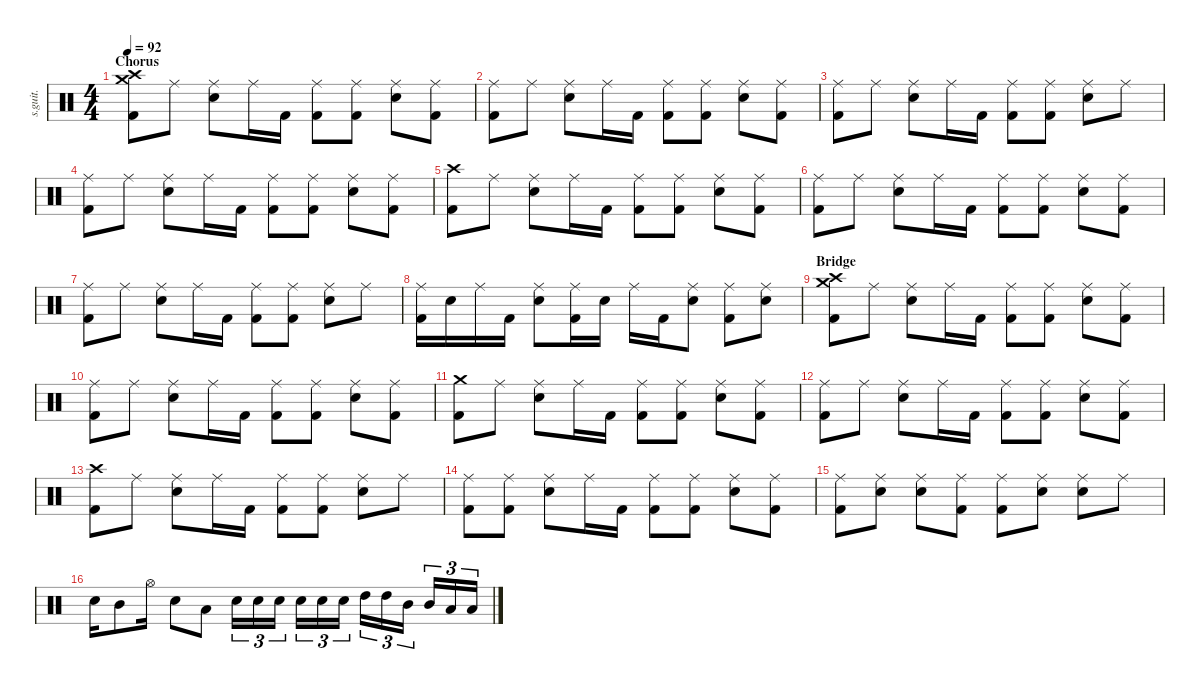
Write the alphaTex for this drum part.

\defaultSystemsLayout 4
\hideDynamics
\bracketExtendMode nobrackets
\track ("Phil Selway | DW Drum Kit | Drums" "s.guit.") {instrument percussion}
\staff {score}
\articulation defaults
\ts (4 4)
\section ("" "Chorus")
\tempo 92
\clef neutral
\ks c
("Crash high (hit)" "Crash medium (hit)" "Kick (hit) 2").8{dy fff} "Ride (middle)".8 ("Ride (middle)" "Snare (hit) 2").8 "Ride (middle)".16 "Kick (hit) 2".16 ("Ride (middle)" "Kick (hit) 2").8 ("Ride (middle)" "Kick (hit) 2").8 ("Ride (middle)" "Snare (hit) 2").8 ("Ride (middle)" "Kick (hit) 2").8 |
("Ride (middle)" "Kick (hit) 2").8 "Ride (middle)".8 ("Ride (middle)" "Snare (hit) 2").8 "Ride (middle)".16 "Kick (hit) 2".16 ("Ride (middle)" "Kick (hit) 2").8 ("Ride (middle)" "Kick (hit) 2").8 ("Ride (middle)" "Snare (hit) 2").8 ("Ride (middle)" "Kick (hit) 2").8 |
("Ride (middle)" "Kick (hit) 2").8 "Ride (middle)".8 ("Ride (middle)" "Snare (hit) 2").8 "Ride (middle)".16 "Kick (hit) 2".16 ("Ride (middle)" "Kick (hit) 2").8 ("Ride (middle)" "Kick (hit) 2").8 ("Ride (middle)" "Snare (hit) 2").8 "Ride (middle)".8 |
("Ride (middle)" "Kick (hit) 2").8 "Ride (middle)".8 ("Ride (middle)" "Snare (hit) 2").8 "Ride (middle)".16 "Kick (hit) 2".16 ("Ride (middle)" "Kick (hit) 2").8 ("Ride (middle)" "Kick (hit) 2").8 ("Ride (middle)" "Snare (hit) 2").8 ("Ride (middle)" "Kick (hit) 2").8 |
("Crash high (hit)" "Kick (hit) 2").8 "Ride (middle)".8 ("Ride (middle)" "Snare (hit) 2").8 "Ride (middle)".16 "Kick (hit) 2".16 ("Ride (middle)" "Kick (hit) 2").8 ("Ride (middle)" "Kick (hit) 2").8 ("Ride (middle)" "Snare (hit) 2").8 ("Ride (middle)" "Kick (hit) 2").8 |
("Ride (middle)" "Kick (hit) 2").8 "Ride (middle)".8 ("Ride (middle)" "Snare (hit) 2").8 "Ride (middle)".16 "Kick (hit) 2".16 ("Ride (middle)" "Kick (hit) 2").8 ("Ride (middle)" "Kick (hit) 2").8 ("Ride (middle)" "Snare (hit) 2").8 ("Ride (middle)" "Kick (hit) 2").8 |
("Ride (middle)" "Kick (hit) 2").8 "Ride (middle)".8 ("Ride (middle)" "Snare (hit) 2").8 "Ride (middle)".16 "Kick (hit) 2".16 ("Ride (middle)" "Kick (hit) 2").8 ("Ride (middle)" "Kick (hit) 2").8 ("Ride (middle)" "Snare (hit) 2").8 "Ride (middle)".8 |
("Ride (middle)" "Kick (hit) 2").16 "Snare (hit) 2".16 "Ride (middle)".16 "Kick (hit) 2".16 ("Ride (middle)" "Snare (hit) 2").8 ("Ride (middle)" "Kick (hit) 2").16 "Snare (hit) 2".16 "Ride (middle)".16 "Kick (hit) 2".16 ("Ride (middle)" "Snare (hit) 2").8 ("Ride (middle)" "Kick (hit) 2").8 ("Ride (middle)" "Snare (hit) 2").8 |
\section ("" "Bridge")
("Crash high (hit)" "Crash medium (hit)" "Kick (hit) 2").8 "Ride (middle)".8 ("Ride (middle)" "Snare (hit) 2").8 "Ride (middle)".16 "Kick (hit) 2".16 ("Ride (middle)" "Kick (hit) 2").8 ("Ride (middle)" "Kick (hit) 2").8 ("Ride (middle)" "Snare (hit) 2").8 ("Ride (middle)" "Kick (hit) 2").8 |
("Ride (middle)" "Kick (hit) 2").8 "Ride (middle)".8 ("Ride (middle)" "Snare (hit) 2").8 "Ride (middle)".16 "Kick (hit) 2".16 ("Ride (middle)" "Kick (hit) 2").8 ("Ride (middle)" "Kick (hit) 2").8 ("Ride (middle)" "Snare (hit) 2").8 ("Ride (middle)" "Kick (hit) 2").8 |
("Crash medium (hit)" "Kick (hit) 2").8 "Ride (middle)".8 ("Ride (middle)" "Snare (hit) 2").8 "Ride (middle)".16 "Kick (hit) 2".16 ("Ride (middle)" "Kick (hit) 2").8 ("Ride (middle)" "Kick (hit) 2").8 ("Ride (middle)" "Snare (hit) 2").8 ("Ride (middle)" "Kick (hit) 2").8 |
("Ride (middle)" "Kick (hit) 2").8 "Ride (middle)".8 ("Ride (middle)" "Snare (hit) 2").8 "Ride (middle)".16 "Kick (hit) 2".16 ("Ride (middle)" "Kick (hit) 2").8 ("Ride (middle)" "Kick (hit) 2").8 ("Ride (middle)" "Snare (hit) 2").8 ("Ride (middle)" "Kick (hit) 2").8 |
("Crash high (hit)" "Kick (hit) 2").8 "Ride (middle)".8 ("Ride (middle)" "Snare (hit) 2").8 "Ride (middle)".16 "Kick (hit) 2".16 ("Ride (middle)" "Kick (hit) 2").8 ("Ride (middle)" "Kick (hit) 2").8 ("Ride (middle)" "Snare (hit) 2").8 "Ride (middle)".8 |
("Ride (middle)" "Kick (hit) 2").8 ("Ride (middle)" "Kick (hit) 2").8 ("Ride (middle)" "Snare (hit) 2").8 "Ride (middle)".16 "Kick (hit) 2".16 ("Ride (middle)" "Kick (hit) 2").8 ("Ride (middle)" "Kick (hit) 2").8 ("Ride (middle)" "Snare (hit) 2").8 ("Ride (middle)" "Kick (hit) 2").8 |
("Ride (middle)" "Kick (hit) 2").8 ("Ride (middle)" "Snare (hit) 2").8 ("Ride (middle)" "Snare (hit) 2").8 ("Ride (middle)" "Kick (hit) 2").8 ("Ride (middle)" "Kick (hit) 2").8 ("Ride (middle)" "Snare (hit) 2").8 ("Ride (middle)" "Snare (hit) 2").8 "Ride (middle)".8 |
"Snare (hit) 2".16 "Mid Tom (hit)".8 "Hi-Hat (open)".16 "Snare (hit) 2".8 "Low Floor Tom (hit)".8 "Snare (hit) 2".16{tu (3 2)} "Snare (hit) 2".16{tu (3 2)} "Snare (hit) 2".16{tu (3 2)} "Snare (hit) 2".16{tu (3 2)} "Snare (hit) 2".16{tu (3 2)} "Snare (hit) 2".16{tu (3 2)} "High Tom (hit)".16{tu (3 2)} "High Tom (hit)".16{tu (3 2)} "Mid Tom (hit)".16{tu (3 2)} "Mid Tom (hit)".16{tu (3 2)} "Low Floor Tom (hit)".16{tu (3 2)} "Low Floor Tom (hit)".16{tu (3 2)}
